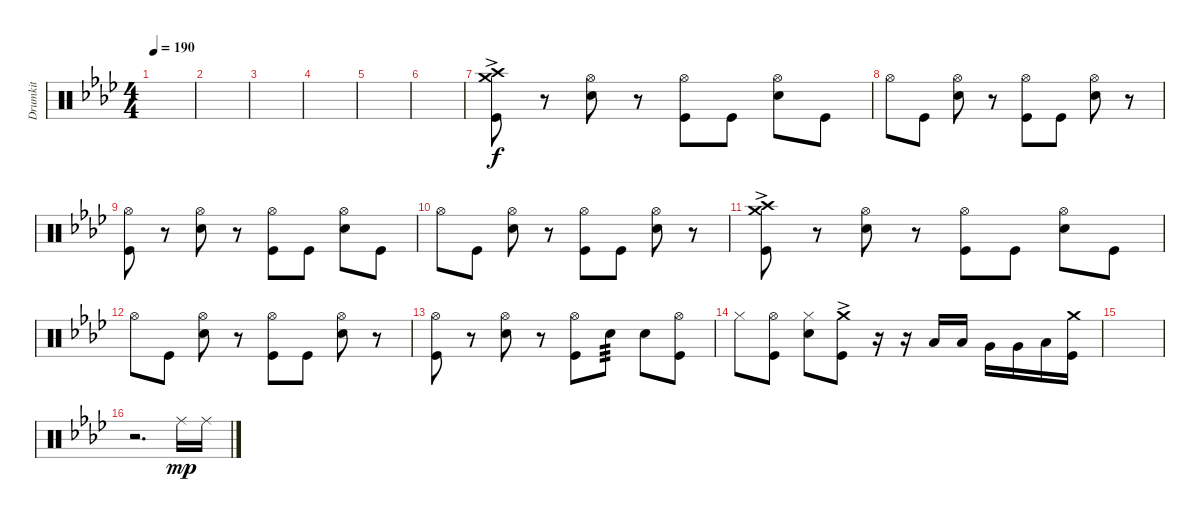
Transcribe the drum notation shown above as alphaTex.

\track ("Drumkit" "Drumkit") {instrument percussion}
\staff {score}
\articulation defaults
\ts (4 4)
\tempo 190
\clef neutral
\ks ab
|
|
|
|
|
|
("Crash medium (hit)"{ac} "Crash high (hit)" "Kick (hit)").8{dy f} r.8 ("Hi-Hat (open)" "Snare (hit) 2").8 r.8 ("Hi-Hat (open)" "Kick (hit)").8 "Kick (hit)".8 ("Hi-Hat (open)" "Snare (hit) 2").8 "Kick (hit)".8 |
"Hi-Hat (open)".8 "Kick (hit)".8 ("Hi-Hat (open)" "Snare (hit) 2").8 r.8 ("Hi-Hat (open)" "Kick (hit)").8 "Kick (hit)".8 ("Hi-Hat (open)" "Snare (hit) 2").8 r.8 |
("Kick (hit)" "Hi-Hat (open)").8 r.8 ("Hi-Hat (open)" "Snare (hit) 2").8 r.8 ("Hi-Hat (open)" "Kick (hit)").8 "Kick (hit)".8 ("Hi-Hat (open)" "Snare (hit) 2").8 "Kick (hit)".8 |
"Hi-Hat (open)".8 "Kick (hit)".8 ("Hi-Hat (open)" "Snare (hit) 2").8 r.8 ("Hi-Hat (open)" "Kick (hit)").8 "Kick (hit)".8 ("Hi-Hat (open)" "Snare (hit) 2").8 r.8 |
("Crash medium (hit)" "Crash high (hit)"{ac} "Kick (hit)").8 r.8 ("Hi-Hat (open)" "Snare (hit) 2").8 r.8 ("Hi-Hat (open)" "Kick (hit)").8 "Kick (hit)".8 ("Hi-Hat (open)" "Snare (hit) 2").8 "Kick (hit)".8 |
"Hi-Hat (open)".8 "Kick (hit)".8 ("Hi-Hat (open)" "Snare (hit) 2").8 r.8 ("Hi-Hat (open)" "Kick (hit)").8 "Kick (hit)".8 ("Hi-Hat (open)" "Snare (hit) 2").8 r.8 |
("Kick (hit)" "Hi-Hat (open)").8 r.8 ("Hi-Hat (open)" "Snare (hit) 2").8 r.8 ("Hi-Hat (open)" "Kick (hit)").8 "Snare (hit) 2".8{tp 3} "Snare (hit) 2".8 ("Kick (hit)" "Hi-Hat (open)").8 |
"Hi-Hat (closed)".8 ("Hi-Hat (open)" "Kick (hit)").8 ("Hi-Hat (closed)" "Snare (hit) 2").8 ("Kick (hit)" "Crash medium (hit)"{ac}).8 r.16 r.16 "Low Tom (hit)".16 "Low Tom (hit)".16 "Very Low Tom (hit)".16 "Very Low Tom (hit)".16 "Low Floor Tom (hit)".16 ("Kick (hit)" "Crash medium (hit)").16 |
|
r.2{d} "Ride (middle)".16{dy mp} "Ride (middle)".16
